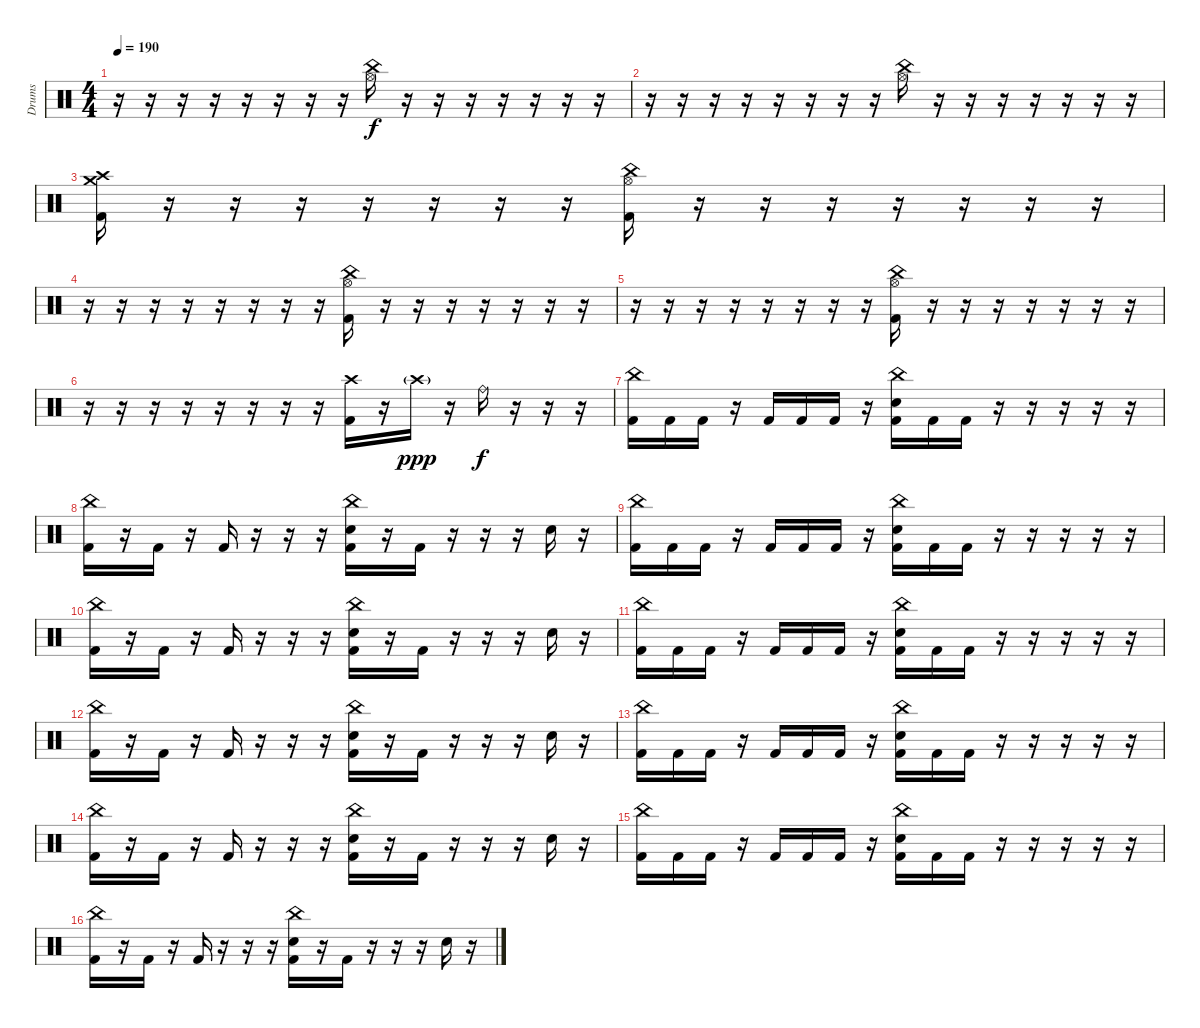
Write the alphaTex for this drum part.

\track ("Drums" "Drums") {instrument percussion}
\staff {score}
\articulation defaults
\ts (4 4)
\tempo 190
\clef neutral
\ks c
r.16{dy f} r.16 r.16 r.16 r.16 r.16 r.16 r.16 ("China (hit)" "Hi-Hat (open)").16 r.16 r.16 r.16 r.16 r.16 r.16 r.16 |
r.16 r.16 r.16 r.16 r.16 r.16 r.16 r.16 ("China (hit)" "Hi-Hat (open)").16 r.16 r.16 r.16 r.16 r.16 r.16 r.16 |
("Crash high (hit)" "Crash medium (hit)" "Kick (hit) 2").16 r.16 r.16 r.16 r.16 r.16 r.16 r.16 ("China (hit)" "Hi-Hat (open)" "Kick (hit) 2").16 r.16 r.16 r.16 r.16 r.16 r.16 r.16 |
r.16 r.16 r.16 r.16 r.16 r.16 r.16 r.16 ("China (hit)" "Hi-Hat (open)" "Kick (hit) 2").16 r.16 r.16 r.16 r.16 r.16 r.16 r.16 |
r.16 r.16 r.16 r.16 r.16 r.16 r.16 r.16 ("China (hit)" "Hi-Hat (open)" "Kick (hit) 2").16 r.16 r.16 r.16 r.16 r.16 r.16 r.16 |
r.16 r.16 r.16 r.16 r.16 r.16 r.16 r.16 ("Crash high (hit)" "Kick (hit) 2").16 r.16 "Crash high (hit)"{g}.16{dy ppp} r.16 "Ride (bell)".16{dy f} r.16 r.16 r.16 |
("China (hit)" "Kick (hit) 2").16 "Kick (hit) 2".16 "Kick (hit) 2".16 r.16 "Kick (hit) 2".16 "Kick (hit) 2".16 "Kick (hit) 2".16 r.16 ("China (hit)" "Electric Snare (hit)" "Kick (hit) 2").16 "Kick (hit) 2".16 "Kick (hit) 2".16 r.16 r.16 r.16 r.16 r.16 |
("China (hit)" "Kick (hit) 2").16 r.16 "Kick (hit) 2".16 r.16 "Kick (hit) 2".16 r.16 r.16 r.16 ("China (hit)" "Electric Snare (hit)" "Kick (hit) 2").16 r.16 "Kick (hit) 2".16 r.16 r.16 r.16 "Electric Snare (hit)".16 r.16 |
("China (hit)" "Kick (hit) 2").16 "Kick (hit) 2".16 "Kick (hit) 2".16 r.16 "Kick (hit) 2".16 "Kick (hit) 2".16 "Kick (hit) 2".16 r.16 ("China (hit)" "Electric Snare (hit)" "Kick (hit) 2").16 "Kick (hit) 2".16 "Kick (hit) 2".16 r.16 r.16 r.16 r.16 r.16 |
("China (hit)" "Kick (hit) 2").16 r.16 "Kick (hit) 2".16 r.16 "Kick (hit) 2".16 r.16 r.16 r.16 ("China (hit)" "Electric Snare (hit)" "Kick (hit) 2").16 r.16 "Kick (hit) 2".16 r.16 r.16 r.16 "Electric Snare (hit)".16 r.16 |
("China (hit)" "Kick (hit) 2").16 "Kick (hit) 2".16 "Kick (hit) 2".16 r.16 "Kick (hit) 2".16 "Kick (hit) 2".16 "Kick (hit) 2".16 r.16 ("China (hit)" "Electric Snare (hit)" "Kick (hit) 2").16 "Kick (hit) 2".16 "Kick (hit) 2".16 r.16 r.16 r.16 r.16 r.16 |
("China (hit)" "Kick (hit) 2").16 r.16 "Kick (hit) 2".16 r.16 "Kick (hit) 2".16 r.16 r.16 r.16 ("China (hit)" "Electric Snare (hit)" "Kick (hit) 2").16 r.16 "Kick (hit) 2".16 r.16 r.16 r.16 "Electric Snare (hit)".16 r.16 |
("China (hit)" "Kick (hit) 2").16 "Kick (hit) 2".16 "Kick (hit) 2".16 r.16 "Kick (hit) 2".16 "Kick (hit) 2".16 "Kick (hit) 2".16 r.16 ("China (hit)" "Electric Snare (hit)" "Kick (hit) 2").16 "Kick (hit) 2".16 "Kick (hit) 2".16 r.16 r.16 r.16 r.16 r.16 |
("China (hit)" "Kick (hit) 2").16 r.16 "Kick (hit) 2".16 r.16 "Kick (hit) 2".16 r.16 r.16 r.16 ("China (hit)" "Electric Snare (hit)" "Kick (hit) 2").16 r.16 "Kick (hit) 2".16 r.16 r.16 r.16 "Electric Snare (hit)".16 r.16 |
("China (hit)" "Kick (hit) 2").16 "Kick (hit) 2".16 "Kick (hit) 2".16 r.16 "Kick (hit) 2".16 "Kick (hit) 2".16 "Kick (hit) 2".16 r.16 ("China (hit)" "Electric Snare (hit)" "Kick (hit) 2").16 "Kick (hit) 2".16 "Kick (hit) 2".16 r.16 r.16 r.16 r.16 r.16 |
("China (hit)" "Kick (hit) 2").16 r.16 "Kick (hit) 2".16 r.16 "Kick (hit) 2".16 r.16 r.16 r.16 ("China (hit)" "Electric Snare (hit)" "Kick (hit) 2").16 r.16 "Kick (hit) 2".16 r.16 r.16 r.16 "Electric Snare (hit)".16 r.16
